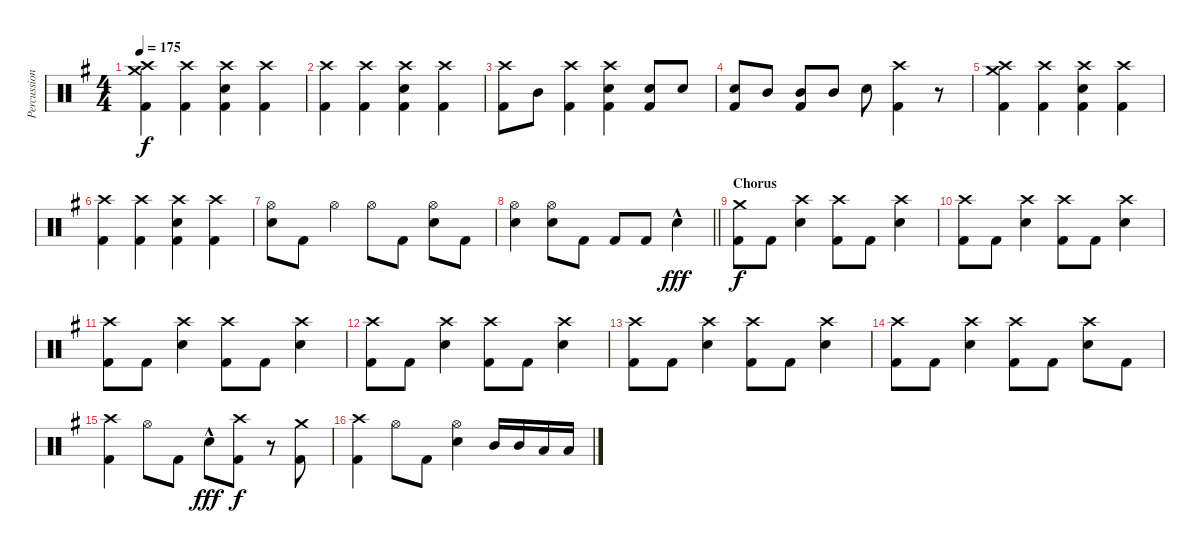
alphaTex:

\track ("Percussion" "Percussion") {instrument percussion}
\staff {score}
\articulation defaults
\ts (4 4)
\tempo 175
\clef neutral
\ks g
("Crash medium (hit)" "Crash high (hit)" "Kick (hit) 2").4{dy f} ("Crash high (hit)" "Kick (hit) 2").4 ("Crash high (hit)" "Snare (hit) 2" "Kick (hit) 2").4 ("Crash high (hit)" "Kick (hit) 2").4 |
("Crash high (hit)" "Kick (hit) 2").4 ("Crash high (hit)" "Kick (hit) 2").4 ("Crash high (hit)" "Snare (hit) 2" "Kick (hit) 2").4 ("Crash high (hit)" "Kick (hit) 2").4 |
("Crash high (hit)" "Kick (hit) 2").8 "Mid Tom (hit)".8 ("Crash high (hit)" "Kick (hit) 2").4 ("Crash high (hit)" "Snare (hit) 2" "Kick (hit) 2").4 ("Snare (hit) 2" "Kick (hit) 2").8 "Snare (hit) 2".8 |
("Snare (hit) 2" "Kick (hit) 2").8 "Mid Tom (hit)".8 ("Mid Tom (hit)" "Kick (hit) 2").8 "Mid Tom (hit)".8 "Snare (hit) 2".8 ("Crash high (hit)" "Kick (hit) 2").4 r.8 |
("Crash medium (hit)" "Crash high (hit)" "Kick (hit) 2").4 ("Crash high (hit)" "Kick (hit) 2").4 ("Crash high (hit)" "Snare (hit) 2" "Kick (hit) 2").4 ("Crash high (hit)" "Kick (hit) 2").4 |
("Crash high (hit)" "Kick (hit) 2").4 ("Crash high (hit)" "Kick (hit) 2").4 ("Crash high (hit)" "Snare (hit) 2" "Kick (hit) 2").4 ("Crash high (hit)" "Kick (hit) 2").4 |
("Hi-Hat (open)" "Snare (hit) 2").8 "Kick (hit) 2".8 "Hi-Hat (open)".4 "Hi-Hat (open)".8 "Kick (hit) 2".8 ("Hi-Hat (open)" "Snare (hit) 2").8 "Kick (hit) 2".8 |
\barLineRight lightlight
("Hi-Hat (open)" "Snare (hit) 2").4 ("Hi-Hat (open)" "Snare (hit) 2").8 "Kick (hit) 2".8 "Kick (hit) 2".8 "Kick (hit) 2".8 "Snare (hit) 2"{hac}.4{dy fff} |
\section ("" "Chorus")
("Crash medium (hit)" "Kick (hit) 2").8{dy f} "Kick (hit) 2".8 ("Crash high (hit)" "Snare (hit) 2").4 ("Crash high (hit)" "Kick (hit) 2").8 "Kick (hit) 2".8 ("Crash high (hit)" "Snare (hit) 2").4 |
("Crash high (hit)" "Kick (hit) 2").8 "Kick (hit) 2".8 ("Crash high (hit)" "Snare (hit) 2").4 ("Crash high (hit)" "Kick (hit) 2").8 "Kick (hit) 2".8 ("Crash high (hit)" "Snare (hit) 2").4 |
("Crash high (hit)" "Kick (hit) 2").8 "Kick (hit) 2".8 ("Crash high (hit)" "Snare (hit) 2").4 ("Crash high (hit)" "Kick (hit) 2").8 "Kick (hit) 2".8 ("Crash high (hit)" "Snare (hit) 2").4 |
("Crash high (hit)" "Kick (hit) 2").8 "Kick (hit) 2".8 ("Crash high (hit)" "Snare (hit) 2").4 ("Crash high (hit)" "Kick (hit) 2").8 "Kick (hit) 2".8 ("Crash high (hit)" "Snare (hit) 2").4 |
("Crash high (hit)" "Kick (hit) 2").8 "Kick (hit) 2".8 ("Crash high (hit)" "Snare (hit) 2").4 ("Crash high (hit)" "Kick (hit) 2").8 "Kick (hit) 2".8 ("Crash high (hit)" "Snare (hit) 2").4 |
("Crash high (hit)" "Kick (hit) 2").8 "Kick (hit) 2".8 ("Crash high (hit)" "Snare (hit) 2").4 ("Crash high (hit)" "Kick (hit) 2").8 "Kick (hit) 2".8 ("Crash high (hit)" "Snare (hit) 2").8 "Kick (hit) 2".8 |
("Crash high (hit)" "Kick (hit) 2").4 "Hi-Hat (open)".8 "Kick (hit) 2".8 "Snare (hit) 2"{hac}.8{dy fff} ("Crash high (hit)" "Kick (hit) 2").8{dy f} r.8 ("Crash medium (hit)" "Kick (hit) 2").8 |
("Crash high (hit)" "Kick (hit) 2").4 "Hi-Hat (open)".8 "Kick (hit) 2".8 ("Hi-Hat (open)" "Snare (hit) 2").4 "Mid Tom (hit)".16 "Mid Tom (hit)".16 "Low Floor Tom (hit)".16 "Low Floor Tom (hit)".16
